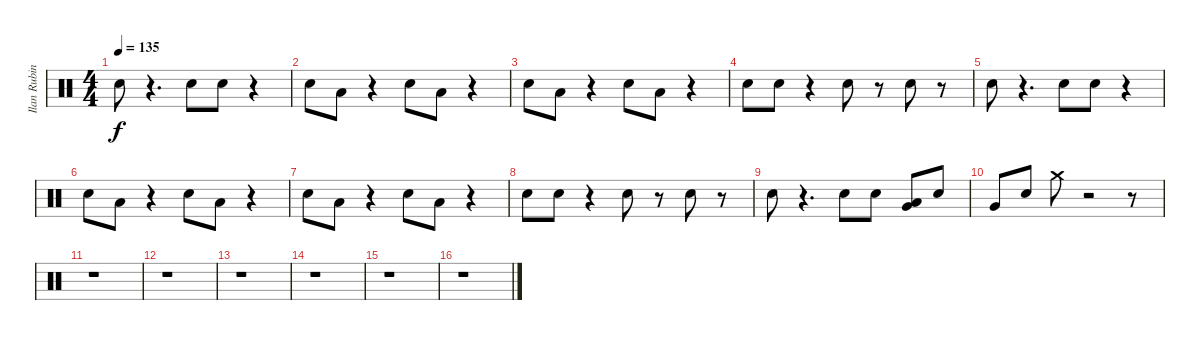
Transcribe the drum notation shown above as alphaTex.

\track ("Ilan Rubin" "Ilan Rubin") {instrument percussion}
\staff {score}
\articulation defaults
\ts (4 4)
\tempo 135
\clef neutral
\ks c "Electric Snare (hit)".8{dy f}
r.4{d} "Electric Snare (hit)".8 "Electric Snare (hit)".8 r.4 |
"Electric Snare (hit)".8 "Low Tom (hit)".8 r.4 "Electric Snare (hit)".8 "Low Tom (hit)".8 r.4 |
"Electric Snare (hit)".8 "Low Tom (hit)".8 r.4 "Electric Snare (hit)".8 "Low Tom (hit)".8 r.4 |
"Electric Snare (hit)".8 "Electric Snare (hit)".8 r.4 "Electric Snare (hit)".8 r.8 "Electric Snare (hit)".8 r.8 |
"Electric Snare (hit)".8 r.4{d} "Electric Snare (hit)".8 "Electric Snare (hit)".8 r.4 |
"Electric Snare (hit)".8 "Low Tom (hit)".8 r.4 "Electric Snare (hit)".8 "Low Tom (hit)".8 r.4 |
"Electric Snare (hit)".8 "Low Tom (hit)".8 r.4 "Electric Snare (hit)".8 "Low Tom (hit)".8 r.4 |
"Electric Snare (hit)".8 "Electric Snare (hit)".8 r.4 "Electric Snare (hit)".8 r.8 "Electric Snare (hit)".8 r.8 |
"Electric Snare (hit)".8 r.4{d} "Electric Snare (hit)".8 "Electric Snare (hit)".8 ("Low Tom (hit)" "Very Low Tom (hit)").8 "Electric Snare (hit)".8 |
"Very Low Tom (hit)".8 "Electric Snare (hit)".8 "Crash medium (hit)".8 r.2 r.8 |
r.1 |
r.1 |
r.1 |
r.1 |
r.1 |
r.1
